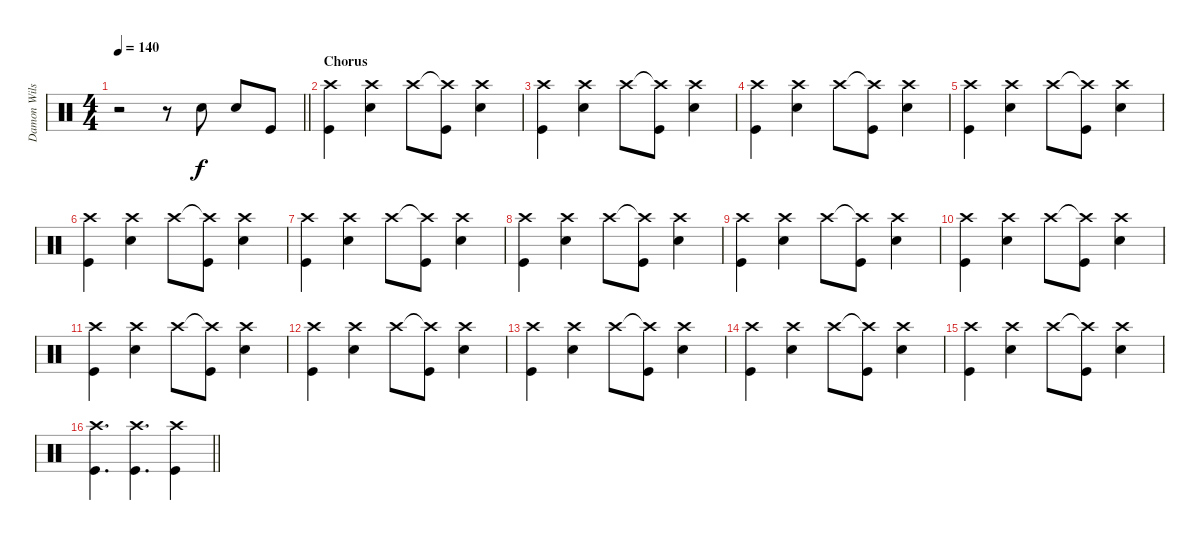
\track ("Damon Wilson" "Damon Wils") {instrument percussion}
\staff {score}
\articulation defaults
\ts (4 4)
\tempo 140
\clef neutral
\barLineRight lightlight
\ks c
r.2{dy f} r.8 "Snare (hit) 2".8{volume 16} "Snare (hit) 2".8 "Kick (hit)".8 |
\section ("" "Chorus")
("Crash high (hit)" "Kick (hit)").4 ("Crash high (hit)" "Snare (hit) 2").4 "Crash high (hit)".8 ("Crash high (hit)"{t} "Kick (hit)").8 ("Crash high (hit)" "Snare (hit) 2").4 |
("Crash high (hit)" "Kick (hit)").4 ("Crash high (hit)" "Snare (hit) 2").4 "Crash high (hit)".8 ("Crash high (hit)"{t} "Kick (hit)").8 ("Crash high (hit)" "Snare (hit) 2").4 |
("Crash high (hit)" "Kick (hit)").4 ("Crash high (hit)" "Snare (hit) 2").4 "Crash high (hit)".8 ("Crash high (hit)"{t} "Kick (hit)").8 ("Crash high (hit)" "Snare (hit) 2").4 |
("Crash high (hit)" "Kick (hit)").4 ("Crash high (hit)" "Snare (hit) 2").4 "Crash high (hit)".8 ("Crash high (hit)"{t} "Kick (hit)").8 ("Crash high (hit)" "Snare (hit) 2").4 |
("Crash high (hit)" "Kick (hit)").4 ("Crash high (hit)" "Snare (hit) 2").4 "Crash high (hit)".8 ("Crash high (hit)"{t} "Kick (hit)").8 ("Crash high (hit)" "Snare (hit) 2").4 |
("Crash high (hit)" "Kick (hit)").4 ("Crash high (hit)" "Snare (hit) 2").4 "Crash high (hit)".8 ("Crash high (hit)"{t} "Kick (hit)").8 ("Crash high (hit)" "Snare (hit) 2").4 |
("Crash high (hit)" "Kick (hit)").4 ("Crash high (hit)" "Snare (hit) 2").4 "Crash high (hit)".8 ("Crash high (hit)"{t} "Kick (hit)").8 ("Crash high (hit)" "Snare (hit) 2").4 |
("Crash high (hit)" "Kick (hit)").4 ("Crash high (hit)" "Snare (hit) 2").4 "Crash high (hit)".8 ("Crash high (hit)"{t} "Kick (hit)").8 ("Crash high (hit)" "Snare (hit) 2").4 |
("Crash high (hit)" "Kick (hit)").4{volume 14} ("Crash high (hit)" "Snare (hit) 2").4 "Crash high (hit)".8 ("Crash high (hit)"{t} "Kick (hit)").8 ("Crash high (hit)" "Snare (hit) 2").4 |
("Crash high (hit)" "Kick (hit)").4 ("Crash high (hit)" "Snare (hit) 2").4 "Crash high (hit)".8 ("Crash high (hit)"{t} "Kick (hit)").8 ("Crash high (hit)" "Snare (hit) 2").4 |
("Crash high (hit)" "Kick (hit)").4 ("Crash high (hit)" "Snare (hit) 2").4 "Crash high (hit)".8 ("Crash high (hit)"{t} "Kick (hit)").8 ("Crash high (hit)" "Snare (hit) 2").4 |
("Crash high (hit)" "Kick (hit)").4 ("Crash high (hit)" "Snare (hit) 2").4 "Crash high (hit)".8 ("Crash high (hit)"{t} "Kick (hit)").8 ("Crash high (hit)" "Snare (hit) 2").4 |
("Crash high (hit)" "Kick (hit)").4 ("Crash high (hit)" "Snare (hit) 2").4 "Crash high (hit)".8 ("Crash high (hit)"{t} "Kick (hit)").8 ("Crash high (hit)" "Snare (hit) 2").4 |
("Crash high (hit)" "Kick (hit)").4 ("Crash high (hit)" "Snare (hit) 2").4 "Crash high (hit)".8 ("Crash high (hit)"{t} "Kick (hit)").8 ("Crash high (hit)" "Snare (hit) 2").4 |
\barLineRight lightlight
("Crash high (hit)" "Kick (hit)").4{d} ("Crash high (hit)" "Kick (hit)").4{d} ("Crash high (hit)" "Kick (hit)").4
